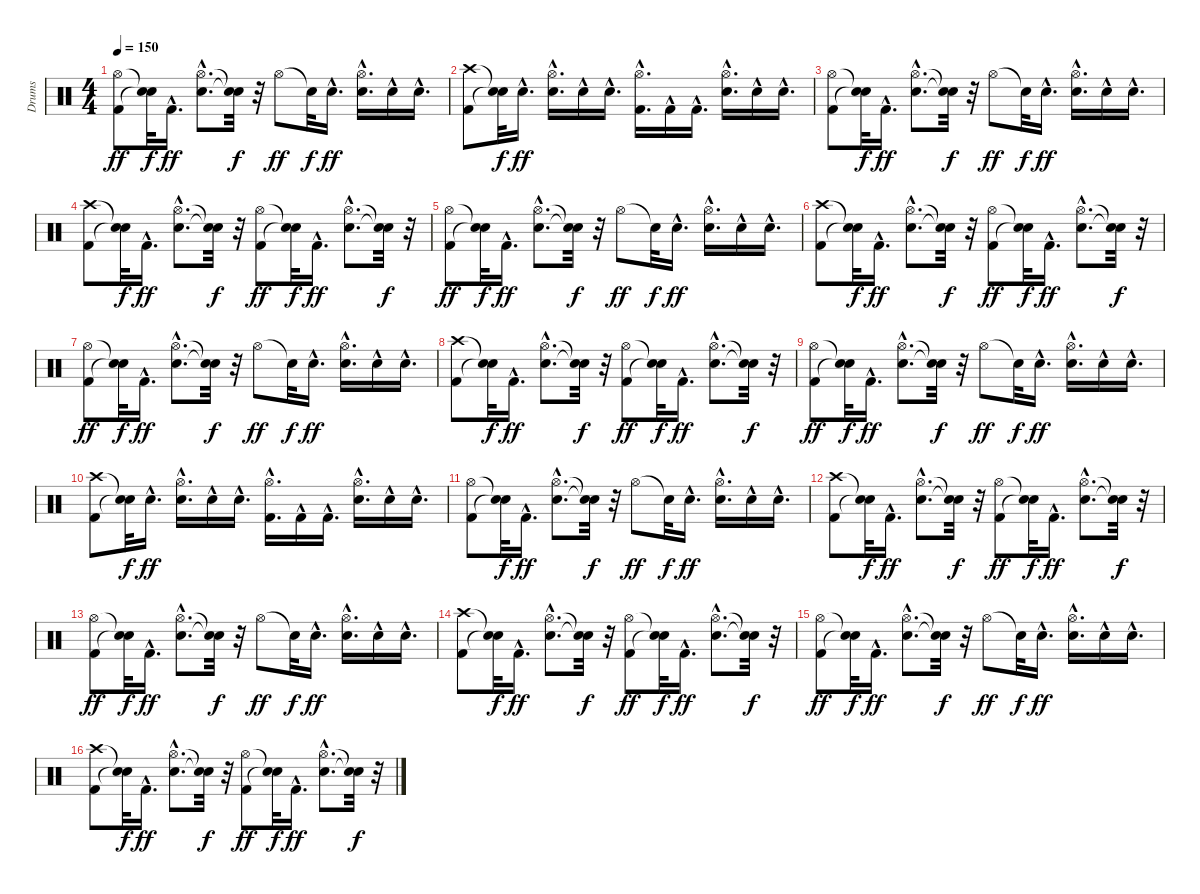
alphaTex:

\track ("Drums" "Drums") {instrument percussion}
\staff {score}
\articulation defaults
\ts (4 4)
\tempo 150
\clef neutral
\ks c
("Kick (hit) 2" "Hi-Hat (open)").8{dy ff} ("Snare (hit)"{t} "Snare (hit)"{t}).32{dy f} "Kick (hit) 2"{hac}.16{d dy ff} ("Snare (hit) 2"{hac} "Hi-Hat (open)"{hac}).8{d} ("Snare (hit)"{t} "Snare (hit)"{t}).32{dy f} r.32 "Hi-Hat (open)".8{dy ff} "Snare (hit)"{t}.32{dy f} "Snare (hit) 2"{hac}.16{d dy ff} ("Snare (hit) 2"{hac} "Hi-Hat (open)"{hac}).16{d} "Snare (hit) 2"{hac}.16 "Snare (hit) 2"{hac}.16{d} |
("Kick (hit) 2" "Crash high (hit)").8 ("Snare (hit)"{t} "Snare (hit)"{t}).32{dy f} "Snare (hit) 2"{hac}.16{d dy ff} ("Snare (hit) 2"{hac} "Hi-Hat (open)"{hac}).16{d} "Snare (hit) 2"{hac}.16 "Snare (hit) 2"{hac}.16{d} ("Kick (hit) 2"{hac} "Hi-Hat (open)"{hac}).16{d} "Kick (hit) 2"{hac}.16 "Kick (hit) 2"{hac}.16{d} ("Snare (hit) 2"{hac} "Hi-Hat (open)"{hac}).16{d} "Snare (hit) 2"{hac}.16 "Snare (hit) 2"{hac}.16{d} |
("Kick (hit) 2" "Hi-Hat (open)").8 ("Snare (hit)"{t} "Snare (hit)"{t}).32{dy f} "Kick (hit) 2"{hac}.16{d dy ff} ("Snare (hit) 2"{hac} "Hi-Hat (open)"{hac}).8{d} ("Snare (hit)"{t} "Snare (hit)"{t}).32{dy f} r.32 "Hi-Hat (open)".8{dy ff} "Snare (hit)"{t}.32{dy f} "Snare (hit) 2"{hac}.16{d dy ff} ("Snare (hit) 2"{hac} "Hi-Hat (open)"{hac}).16{d} "Snare (hit) 2"{hac}.16 "Snare (hit) 2"{hac}.16{d} |
("Kick (hit) 2" "Crash high (hit)").8 ("Snare (hit)"{t} "Snare (hit)"{t}).32{dy f} "Kick (hit) 2"{hac}.16{d dy ff} ("Snare (hit) 2"{hac} "Hi-Hat (open)"{hac}).8{d} ("Snare (hit)"{t} "Snare (hit)"{t}).32{dy f} r.32 ("Kick (hit) 2" "Hi-Hat (open)").8{dy ff} ("Snare (hit)"{t} "Snare (hit)"{t}).32{dy f} "Kick (hit) 2"{hac}.16{d dy ff} ("Snare (hit) 2"{hac} "Hi-Hat (open)"{hac}).8{d} ("Snare (hit)"{t} "Snare (hit)"{t}).32{dy f} r.32 |
("Kick (hit) 2" "Hi-Hat (open)").8{dy ff} ("Snare (hit)"{t} "Snare (hit)"{t}).32{dy f} "Kick (hit) 2"{hac}.16{d dy ff} ("Snare (hit) 2"{hac} "Hi-Hat (open)"{hac}).8{d} ("Snare (hit)"{t} "Snare (hit)"{t}).32{dy f} r.32 "Hi-Hat (open)".8{dy ff} "Snare (hit)"{t}.32{dy f} "Snare (hit) 2"{hac}.16{d dy ff} ("Snare (hit) 2"{hac} "Hi-Hat (open)"{hac}).16{d} "Snare (hit) 2"{hac}.16 "Snare (hit) 2"{hac}.16{d} |
("Kick (hit) 2" "Crash high (hit)").8 ("Snare (hit)"{t} "Snare (hit)"{t}).32{dy f} "Kick (hit) 2"{hac}.16{d dy ff} ("Snare (hit) 2"{hac} "Hi-Hat (open)"{hac}).8{d} ("Snare (hit)"{t} "Snare (hit)"{t}).32{dy f} r.32 ("Kick (hit) 2" "Hi-Hat (open)").8{dy ff} ("Snare (hit)"{t} "Snare (hit)"{t}).32{dy f} "Kick (hit) 2"{hac}.16{d dy ff} ("Snare (hit) 2"{hac} "Hi-Hat (open)"{hac}).8{d} ("Snare (hit)"{t} "Snare (hit)"{t}).32{dy f} r.32 |
("Kick (hit) 2" "Hi-Hat (open)").8{dy ff} ("Snare (hit)"{t} "Snare (hit)"{t}).32{dy f} "Kick (hit) 2"{hac}.16{d dy ff} ("Snare (hit) 2"{hac} "Hi-Hat (open)"{hac}).8{d} ("Snare (hit)"{t} "Snare (hit)"{t}).32{dy f} r.32 "Hi-Hat (open)".8{dy ff} "Snare (hit)"{t}.32{dy f} "Snare (hit) 2"{hac}.16{d dy ff} ("Snare (hit) 2"{hac} "Hi-Hat (open)"{hac}).16{d} "Snare (hit) 2"{hac}.16 "Snare (hit) 2"{hac}.16{d} |
("Kick (hit) 2" "Crash high (hit)").8 ("Snare (hit)"{t} "Snare (hit)"{t}).32{dy f} "Kick (hit) 2"{hac}.16{d dy ff} ("Snare (hit) 2"{hac} "Hi-Hat (open)"{hac}).8{d} ("Snare (hit)"{t} "Snare (hit)"{t}).32{dy f} r.32 ("Kick (hit) 2" "Hi-Hat (open)").8{dy ff} ("Snare (hit)"{t} "Snare (hit)"{t}).32{dy f} "Kick (hit) 2"{hac}.16{d dy ff} ("Snare (hit) 2"{hac} "Hi-Hat (open)"{hac}).8{d} ("Snare (hit)"{t} "Snare (hit)"{t}).32{dy f} r.32 |
("Kick (hit) 2" "Hi-Hat (open)").8{dy ff} ("Snare (hit)"{t} "Snare (hit)"{t}).32{dy f} "Kick (hit) 2"{hac}.16{d dy ff} ("Snare (hit) 2"{hac} "Hi-Hat (open)"{hac}).8{d} ("Snare (hit)"{t} "Snare (hit)"{t}).32{dy f} r.32 "Hi-Hat (open)".8{dy ff} "Snare (hit)"{t}.32{dy f} "Snare (hit) 2"{hac}.16{d dy ff} ("Snare (hit) 2"{hac} "Hi-Hat (open)"{hac}).16{d} "Snare (hit) 2"{hac}.16 "Snare (hit) 2"{hac}.16{d} |
("Kick (hit) 2" "Crash high (hit)").8 ("Snare (hit)"{t} "Snare (hit)"{t}).32{dy f} "Snare (hit) 2"{hac}.16{d dy ff} ("Snare (hit) 2"{hac} "Hi-Hat (open)"{hac}).16{d} "Snare (hit) 2"{hac}.16 "Snare (hit) 2"{hac}.16{d} ("Kick (hit) 2"{hac} "Hi-Hat (open)"{hac}).16{d} "Kick (hit) 2"{hac}.16 "Kick (hit) 2"{hac}.16{d} ("Snare (hit) 2"{hac} "Hi-Hat (open)"{hac}).16{d} "Snare (hit) 2"{hac}.16 "Snare (hit) 2"{hac}.16{d} |
("Kick (hit) 2" "Hi-Hat (open)").8 ("Snare (hit)"{t} "Snare (hit)"{t}).32{dy f} "Kick (hit) 2"{hac}.16{d dy ff} ("Snare (hit) 2"{hac} "Hi-Hat (open)"{hac}).8{d} ("Snare (hit)"{t} "Snare (hit)"{t}).32{dy f} r.32 "Hi-Hat (open)".8{dy ff} "Snare (hit)"{t}.32{dy f} "Snare (hit) 2"{hac}.16{d dy ff} ("Snare (hit) 2"{hac} "Hi-Hat (open)"{hac}).16{d} "Snare (hit) 2"{hac}.16 "Snare (hit) 2"{hac}.16{d} |
("Kick (hit) 2" "Crash high (hit)").8 ("Snare (hit)"{t} "Snare (hit)"{t}).32{dy f} "Kick (hit) 2"{hac}.16{d dy ff} ("Snare (hit) 2"{hac} "Hi-Hat (open)"{hac}).8{d} ("Snare (hit)"{t} "Snare (hit)"{t}).32{dy f} r.32 ("Kick (hit) 2" "Hi-Hat (open)").8{dy ff} ("Snare (hit)"{t} "Snare (hit)"{t}).32{dy f} "Kick (hit) 2"{hac}.16{d dy ff} ("Snare (hit) 2"{hac} "Hi-Hat (open)"{hac}).8{d} ("Snare (hit)"{t} "Snare (hit)"{t}).32{dy f} r.32 |
("Kick (hit) 2" "Hi-Hat (open)").8{dy ff} ("Snare (hit)"{t} "Snare (hit)"{t}).32{dy f} "Kick (hit) 2"{hac}.16{d dy ff} ("Snare (hit) 2"{hac} "Hi-Hat (open)"{hac}).8{d} ("Snare (hit)"{t} "Snare (hit)"{t}).32{dy f} r.32 "Hi-Hat (open)".8{dy ff} "Snare (hit)"{t}.32{dy f} "Snare (hit) 2"{hac}.16{d dy ff} ("Snare (hit) 2"{hac} "Hi-Hat (open)"{hac}).16{d} "Snare (hit) 2"{hac}.16 "Snare (hit) 2"{hac}.16{d} |
("Kick (hit) 2" "Crash high (hit)").8 ("Snare (hit)"{t} "Snare (hit)"{t}).32{dy f} "Kick (hit) 2"{hac}.16{d dy ff} ("Snare (hit) 2"{hac} "Hi-Hat (open)"{hac}).8{d} ("Snare (hit)"{t} "Snare (hit)"{t}).32{dy f} r.32 ("Kick (hit) 2" "Hi-Hat (open)").8{dy ff} ("Snare (hit)"{t} "Snare (hit)"{t}).32{dy f} "Kick (hit) 2"{hac}.16{d dy ff} ("Snare (hit) 2"{hac} "Hi-Hat (open)"{hac}).8{d} ("Snare (hit)"{t} "Snare (hit)"{t}).32{dy f} r.32 |
("Kick (hit) 2" "Hi-Hat (open)").8{dy ff} ("Snare (hit)"{t} "Snare (hit)"{t}).32{dy f} "Kick (hit) 2"{hac}.16{d dy ff} ("Snare (hit) 2"{hac} "Hi-Hat (open)"{hac}).8{d} ("Snare (hit)"{t} "Snare (hit)"{t}).32{dy f} r.32 "Hi-Hat (open)".8{dy ff} "Snare (hit)"{t}.32{dy f} "Snare (hit) 2"{hac}.16{d dy ff} ("Snare (hit) 2"{hac} "Hi-Hat (open)"{hac}).16{d} "Snare (hit) 2"{hac}.16 "Snare (hit) 2"{hac}.16{d} |
("Kick (hit) 2" "Crash high (hit)").8 ("Snare (hit)"{t} "Snare (hit)"{t}).32{dy f} "Kick (hit) 2"{hac}.16{d dy ff} ("Snare (hit) 2"{hac} "Hi-Hat (open)"{hac}).8{d} ("Snare (hit)"{t} "Snare (hit)"{t}).32{dy f} r.32 ("Kick (hit) 2" "Hi-Hat (open)").8{dy ff} ("Snare (hit)"{t} "Snare (hit)"{t}).32{dy f} "Kick (hit) 2"{hac}.16{d dy ff} ("Snare (hit) 2"{hac} "Hi-Hat (open)"{hac}).8{d} ("Snare (hit)"{t} "Snare (hit)"{t}).32{dy f} r.32
